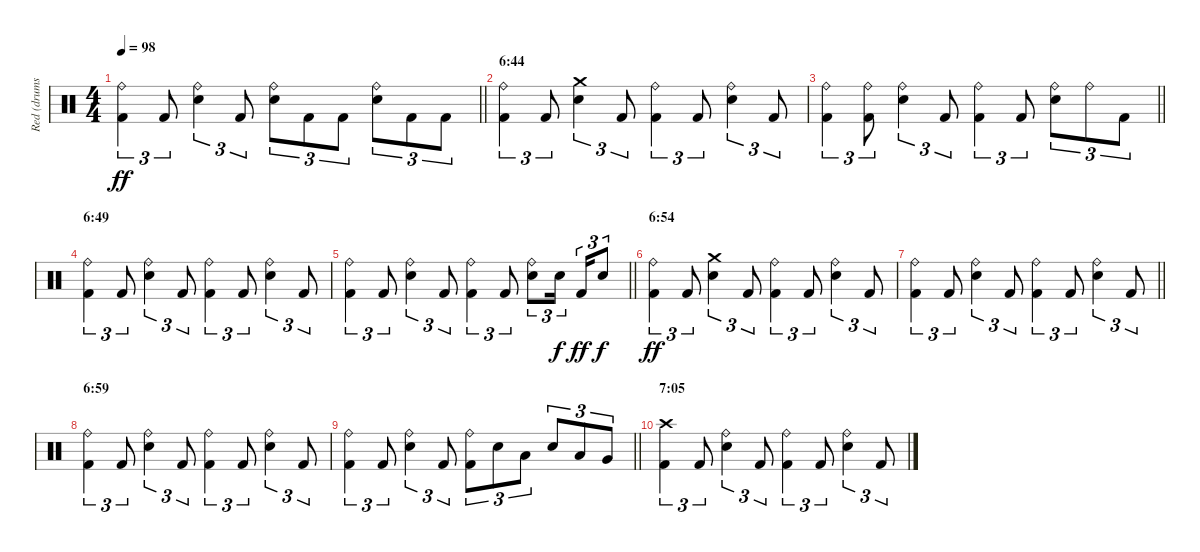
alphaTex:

\track ("Red (drums)" "Red (drums") {instrument percussion}
\staff {score}
\articulation defaults
\ts (4 4)
\tempo 98
\clef neutral
\barLineRight lightlight
\ks c
("Ride (bell)" "Kick (hit) 2").4{tu (3 2) dy ff} "Kick (hit) 2".8{tu (3 2)} ("Ride (bell)" "Electric Snare (hit)").4{tu (3 2)} "Kick (hit) 2".8{tu (3 2)} ("Ride (bell)" "Electric Snare (hit)").8{tu (3 2)} "Kick (hit) 2".8{tu (3 2)} "Kick (hit) 2".8{tu (3 2)} ("Ride (bell)" "Electric Snare (hit)").8{tu (3 2)} "Kick (hit) 2".8{tu (3 2)} "Kick (hit) 2".8{tu (3 2)} |
\section ("" "6:44")
("Ride (bell)" "Kick (hit) 2").4{tu (3 2) volume 11} "Kick (hit) 2".8{tu (3 2)} ("Crash medium (hit)" "Electric Snare (hit)").4{tu (3 2)} "Kick (hit) 2".8{tu (3 2)} ("Ride (bell)" "Kick (hit) 2").4{tu (3 2)} "Kick (hit) 2".8{tu (3 2)} ("Ride (bell)" "Electric Snare (hit)").4{tu (3 2)} "Kick (hit) 2".8{tu (3 2)} |
\barLineRight lightlight
("Ride (bell)" "Kick (hit) 2").4{tu (3 2)} ("Ride (bell)" "Kick (hit) 2").8{tu (3 2)} ("Ride (bell)" "Electric Snare (hit)").4{tu (3 2)} "Kick (hit) 2".8{tu (3 2)} ("Ride (bell)" "Kick (hit) 2").4{tu (3 2)} "Kick (hit) 2".8{tu (3 2)} ("Ride (bell)" "Electric Snare (hit)").8{tu (3 2)} "Ride (bell)".8{tu (3 2)} "Kick (hit) 2".8{tu (3 2)} |
\section ("" "6:49")
("Ride (bell)" "Kick (hit) 2").4{tu (3 2)} "Kick (hit) 2".8{tu (3 2)} ("Ride (bell)" "Electric Snare (hit)").4{tu (3 2)} "Kick (hit) 2".8{tu (3 2)} ("Ride (bell)" "Kick (hit) 2").4{tu (3 2)} "Kick (hit) 2".8{tu (3 2)} ("Ride (bell)" "Electric Snare (hit)").4{tu (3 2)} "Kick (hit) 2".8{tu (3 2)} |
\barLineRight lightlight
("Ride (bell)" "Kick (hit) 2").4{tu (3 2)} "Kick (hit) 2".8{tu (3 2)} ("Ride (bell)" "Electric Snare (hit)").4{tu (3 2)} "Kick (hit) 2".8{tu (3 2)} ("Ride (bell)" "Kick (hit) 2").4{tu (3 2)} "Kick (hit) 2".8{tu (3 2)} ("Ride (bell)" "Electric Snare (hit)").8{tu (3 2)} "Electric Snare (hit)".16{tu (3 2) dy f beam splitsecondary} "Kick (hit) 2".16{tu (3 2) dy ff} "Electric Snare (hit)".8{tu (3 2) dy f} |
\section ("" "6:54")
("Ride (bell)" "Kick (hit) 2").4{tu (3 2) dy ff volume 6} "Kick (hit) 2".8{tu (3 2)} ("Crash medium (hit)" "Electric Snare (hit)").4{tu (3 2)} "Kick (hit) 2".8{tu (3 2)} ("Ride (bell)" "Kick (hit) 2").4{tu (3 2)} "Kick (hit) 2".8{tu (3 2)} ("Ride (bell)" "Electric Snare (hit)").4{tu (3 2)} "Kick (hit) 2".8{tu (3 2)} |
\barLineRight lightlight
("Ride (bell)" "Kick (hit) 2").4{tu (3 2)} "Kick (hit) 2".8{tu (3 2)} ("Ride (bell)" "Electric Snare (hit)").4{tu (3 2)} "Kick (hit) 2".8{tu (3 2)} ("Ride (bell)" "Kick (hit) 2").4{tu (3 2)} "Kick (hit) 2".8{tu (3 2)} ("Ride (bell)" "Electric Snare (hit)").4{tu (3 2)} "Kick (hit) 2".8{tu (3 2)} |
\section ("" "6:59")
("Ride (bell)" "Kick (hit) 2").4{tu (3 2)} "Kick (hit) 2".8{tu (3 2)} ("Ride (bell)" "Electric Snare (hit)").4{tu (3 2)} "Kick (hit) 2".8{tu (3 2)} ("Ride (bell)" "Kick (hit) 2").4{tu (3 2)} "Kick (hit) 2".8{tu (3 2)} ("Ride (bell)" "Electric Snare (hit)").4{tu (3 2)} "Kick (hit) 2".8{tu (3 2)} |
\barLineRight lightlight
("Ride (bell)" "Kick (hit) 2").4{tu (3 2)} "Kick (hit) 2".8{tu (3 2)} ("Ride (bell)" "Electric Snare (hit)").4{tu (3 2)} "Kick (hit) 2".8{tu (3 2)} ("Ride (bell)" "Kick (hit) 2").8{tu (3 2)} "Electric Snare (hit)".8{tu (3 2)} "Low Tom (hit)".8{tu (3 2)} "Electric Snare (hit)".8{tu (3 2)} "Low Tom (hit)".8{tu (3 2)} "Very Low Tom (hit)".8{tu (3 2)} |
\section ("" "7:05")
("Crash high (hit)" "Kick (hit) 2").4{tu (3 2)} "Kick (hit) 2".8{tu (3 2)} ("Ride (bell)" "Electric Snare (hit)").4{tu (3 2)} "Kick (hit) 2".8{tu (3 2)} ("Ride (bell)" "Kick (hit) 2").4{tu (3 2)} "Kick (hit) 2".8{tu (3 2)} ("Ride (bell)" "Electric Snare (hit)").4{tu (3 2)} "Kick (hit) 2".8{tu (3 2)}
